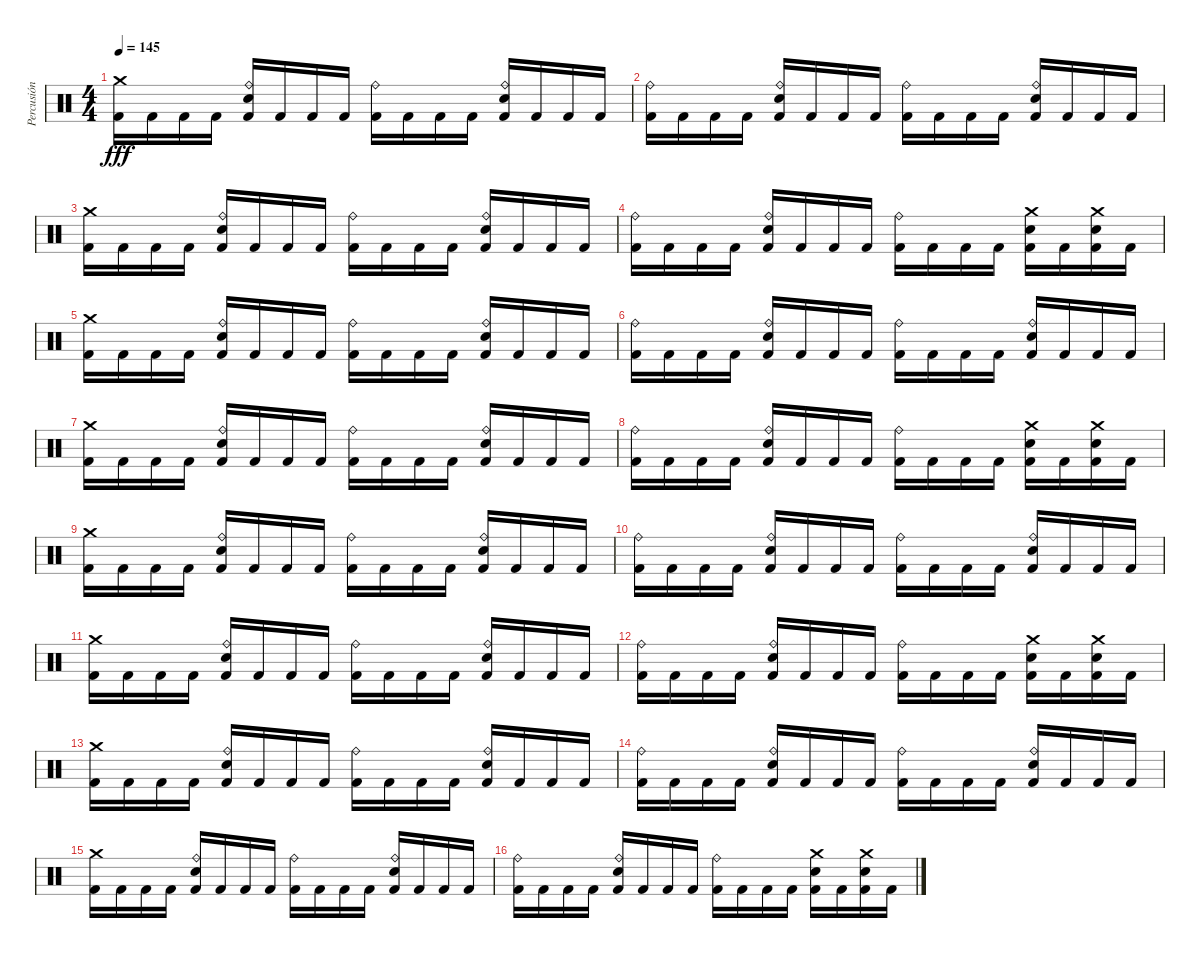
\track ("Percusión" "Percusión") {instrument percussion}
\staff {score}
\articulation defaults
\ts (4 4)
\tempo 145
\clef neutral
\ks c
("Crash medium (hit)" "Kick (hit) 2").16{dy fff} "Kick (hit) 2".16 "Kick (hit) 2".16 "Kick (hit) 2".16 ("Ride (bell)" "Snare (hit) 2" "Kick (hit) 2").16 "Kick (hit) 2".16 "Kick (hit) 2".16 "Kick (hit) 2".16 ("Ride (bell)" "Kick (hit) 2").16 "Kick (hit) 2".16 "Kick (hit) 2".16 "Kick (hit) 2".16 ("Ride (bell)" "Snare (hit) 2" "Kick (hit) 2").16 "Kick (hit) 2".16 "Kick (hit) 2".16 "Kick (hit) 2".16 |
("Ride (bell)" "Kick (hit) 2").16 "Kick (hit) 2".16 "Kick (hit) 2".16 "Kick (hit) 2".16 ("Ride (bell)" "Snare (hit) 2" "Kick (hit) 2").16 "Kick (hit) 2".16 "Kick (hit) 2".16 "Kick (hit) 2".16 ("Ride (bell)" "Kick (hit) 2").16 "Kick (hit) 2".16 "Kick (hit) 2".16 "Kick (hit) 2".16 ("Ride (bell)" "Snare (hit) 2" "Kick (hit) 2").16 "Kick (hit) 2".16 "Kick (hit) 2".16 "Kick (hit) 2".16 |
("Crash medium (hit)" "Kick (hit) 2").16 "Kick (hit) 2".16 "Kick (hit) 2".16 "Kick (hit) 2".16 ("Ride (bell)" "Snare (hit) 2" "Kick (hit) 2").16 "Kick (hit) 2".16 "Kick (hit) 2".16 "Kick (hit) 2".16 ("Ride (bell)" "Kick (hit) 2").16 "Kick (hit) 2".16 "Kick (hit) 2".16 "Kick (hit) 2".16 ("Ride (bell)" "Snare (hit) 2" "Kick (hit) 2").16 "Kick (hit) 2".16 "Kick (hit) 2".16 "Kick (hit) 2".16 |
("Ride (bell)" "Kick (hit) 2").16 "Kick (hit) 2".16 "Kick (hit) 2".16 "Kick (hit) 2".16 ("Ride (bell)" "Snare (hit) 2" "Kick (hit) 2").16 "Kick (hit) 2".16 "Kick (hit) 2".16 "Kick (hit) 2".16 ("Ride (bell)" "Kick (hit) 2").16 "Kick (hit) 2".16 "Kick (hit) 2".16 "Kick (hit) 2".16 ("Crash medium (hit)" "Snare (hit) 2" "Kick (hit) 2").16 "Kick (hit) 2".16 ("Crash medium (hit)" "Snare (hit) 2" "Kick (hit) 2").16 "Kick (hit) 2".16 |
("Crash medium (hit)" "Kick (hit) 2").16 "Kick (hit) 2".16 "Kick (hit) 2".16 "Kick (hit) 2".16 ("Ride (bell)" "Snare (hit) 2" "Kick (hit) 2").16 "Kick (hit) 2".16 "Kick (hit) 2".16 "Kick (hit) 2".16 ("Ride (bell)" "Kick (hit) 2").16 "Kick (hit) 2".16 "Kick (hit) 2".16 "Kick (hit) 2".16 ("Ride (bell)" "Snare (hit) 2" "Kick (hit) 2").16 "Kick (hit) 2".16 "Kick (hit) 2".16 "Kick (hit) 2".16 |
("Ride (bell)" "Kick (hit) 2").16 "Kick (hit) 2".16 "Kick (hit) 2".16 "Kick (hit) 2".16 ("Ride (bell)" "Snare (hit) 2" "Kick (hit) 2").16 "Kick (hit) 2".16 "Kick (hit) 2".16 "Kick (hit) 2".16 ("Ride (bell)" "Kick (hit) 2").16 "Kick (hit) 2".16 "Kick (hit) 2".16 "Kick (hit) 2".16 ("Ride (bell)" "Snare (hit) 2" "Kick (hit) 2").16 "Kick (hit) 2".16 "Kick (hit) 2".16 "Kick (hit) 2".16 |
("Crash medium (hit)" "Kick (hit) 2").16 "Kick (hit) 2".16 "Kick (hit) 2".16 "Kick (hit) 2".16 ("Ride (bell)" "Snare (hit) 2" "Kick (hit) 2").16 "Kick (hit) 2".16 "Kick (hit) 2".16 "Kick (hit) 2".16 ("Ride (bell)" "Kick (hit) 2").16 "Kick (hit) 2".16 "Kick (hit) 2".16 "Kick (hit) 2".16 ("Ride (bell)" "Snare (hit) 2" "Kick (hit) 2").16 "Kick (hit) 2".16 "Kick (hit) 2".16 "Kick (hit) 2".16 |
("Ride (bell)" "Kick (hit) 2").16 "Kick (hit) 2".16 "Kick (hit) 2".16 "Kick (hit) 2".16 ("Ride (bell)" "Snare (hit) 2" "Kick (hit) 2").16 "Kick (hit) 2".16 "Kick (hit) 2".16 "Kick (hit) 2".16 ("Ride (bell)" "Kick (hit) 2").16 "Kick (hit) 2".16 "Kick (hit) 2".16 "Kick (hit) 2".16 ("Crash medium (hit)" "Snare (hit) 2" "Kick (hit) 2").16 "Kick (hit) 2".16 ("Crash medium (hit)" "Snare (hit) 2" "Kick (hit) 2").16 "Kick (hit) 2".16 |
("Crash medium (hit)" "Kick (hit) 2").16 "Kick (hit) 2".16 "Kick (hit) 2".16 "Kick (hit) 2".16 ("Ride (bell)" "Snare (hit) 2" "Kick (hit) 2").16 "Kick (hit) 2".16 "Kick (hit) 2".16 "Kick (hit) 2".16 ("Ride (bell)" "Kick (hit) 2").16 "Kick (hit) 2".16 "Kick (hit) 2".16 "Kick (hit) 2".16 ("Ride (bell)" "Snare (hit) 2" "Kick (hit) 2").16 "Kick (hit) 2".16 "Kick (hit) 2".16 "Kick (hit) 2".16 |
("Ride (bell)" "Kick (hit) 2").16 "Kick (hit) 2".16 "Kick (hit) 2".16 "Kick (hit) 2".16 ("Ride (bell)" "Snare (hit) 2" "Kick (hit) 2").16 "Kick (hit) 2".16 "Kick (hit) 2".16 "Kick (hit) 2".16 ("Ride (bell)" "Kick (hit) 2").16 "Kick (hit) 2".16 "Kick (hit) 2".16 "Kick (hit) 2".16 ("Ride (bell)" "Snare (hit) 2" "Kick (hit) 2").16 "Kick (hit) 2".16 "Kick (hit) 2".16 "Kick (hit) 2".16 |
("Crash medium (hit)" "Kick (hit) 2").16 "Kick (hit) 2".16 "Kick (hit) 2".16 "Kick (hit) 2".16 ("Ride (bell)" "Snare (hit) 2" "Kick (hit) 2").16 "Kick (hit) 2".16 "Kick (hit) 2".16 "Kick (hit) 2".16 ("Ride (bell)" "Kick (hit) 2").16 "Kick (hit) 2".16 "Kick (hit) 2".16 "Kick (hit) 2".16 ("Ride (bell)" "Snare (hit) 2" "Kick (hit) 2").16 "Kick (hit) 2".16 "Kick (hit) 2".16 "Kick (hit) 2".16 |
("Ride (bell)" "Kick (hit) 2").16 "Kick (hit) 2".16 "Kick (hit) 2".16 "Kick (hit) 2".16 ("Ride (bell)" "Snare (hit) 2" "Kick (hit) 2").16 "Kick (hit) 2".16 "Kick (hit) 2".16 "Kick (hit) 2".16 ("Ride (bell)" "Kick (hit) 2").16 "Kick (hit) 2".16 "Kick (hit) 2".16 "Kick (hit) 2".16 ("Crash medium (hit)" "Snare (hit) 2" "Kick (hit) 2").16 "Kick (hit) 2".16 ("Crash medium (hit)" "Snare (hit) 2" "Kick (hit) 2").16 "Kick (hit) 2".16 |
("Crash medium (hit)" "Kick (hit) 2").16 "Kick (hit) 2".16 "Kick (hit) 2".16 "Kick (hit) 2".16 ("Ride (bell)" "Snare (hit) 2" "Kick (hit) 2").16 "Kick (hit) 2".16 "Kick (hit) 2".16 "Kick (hit) 2".16 ("Ride (bell)" "Kick (hit) 2").16 "Kick (hit) 2".16 "Kick (hit) 2".16 "Kick (hit) 2".16 ("Ride (bell)" "Snare (hit) 2" "Kick (hit) 2").16 "Kick (hit) 2".16 "Kick (hit) 2".16 "Kick (hit) 2".16 |
("Ride (bell)" "Kick (hit) 2").16 "Kick (hit) 2".16 "Kick (hit) 2".16 "Kick (hit) 2".16 ("Ride (bell)" "Snare (hit) 2" "Kick (hit) 2").16 "Kick (hit) 2".16 "Kick (hit) 2".16 "Kick (hit) 2".16 ("Ride (bell)" "Kick (hit) 2").16 "Kick (hit) 2".16 "Kick (hit) 2".16 "Kick (hit) 2".16 ("Ride (bell)" "Snare (hit) 2" "Kick (hit) 2").16 "Kick (hit) 2".16 "Kick (hit) 2".16 "Kick (hit) 2".16 |
("Crash medium (hit)" "Kick (hit) 2").16 "Kick (hit) 2".16 "Kick (hit) 2".16 "Kick (hit) 2".16 ("Ride (bell)" "Snare (hit) 2" "Kick (hit) 2").16 "Kick (hit) 2".16 "Kick (hit) 2".16 "Kick (hit) 2".16 ("Ride (bell)" "Kick (hit) 2").16 "Kick (hit) 2".16 "Kick (hit) 2".16 "Kick (hit) 2".16 ("Ride (bell)" "Snare (hit) 2" "Kick (hit) 2").16 "Kick (hit) 2".16 "Kick (hit) 2".16 "Kick (hit) 2".16 |
("Ride (bell)" "Kick (hit) 2").16 "Kick (hit) 2".16 "Kick (hit) 2".16 "Kick (hit) 2".16 ("Ride (bell)" "Snare (hit) 2" "Kick (hit) 2").16 "Kick (hit) 2".16 "Kick (hit) 2".16 "Kick (hit) 2".16 ("Ride (bell)" "Kick (hit) 2").16 "Kick (hit) 2".16 "Kick (hit) 2".16 "Kick (hit) 2".16 ("Crash medium (hit)" "Snare (hit) 2" "Kick (hit) 2").16 "Kick (hit) 2".16 ("Crash medium (hit)" "Snare (hit) 2" "Kick (hit) 2").16 "Kick (hit) 2".16
